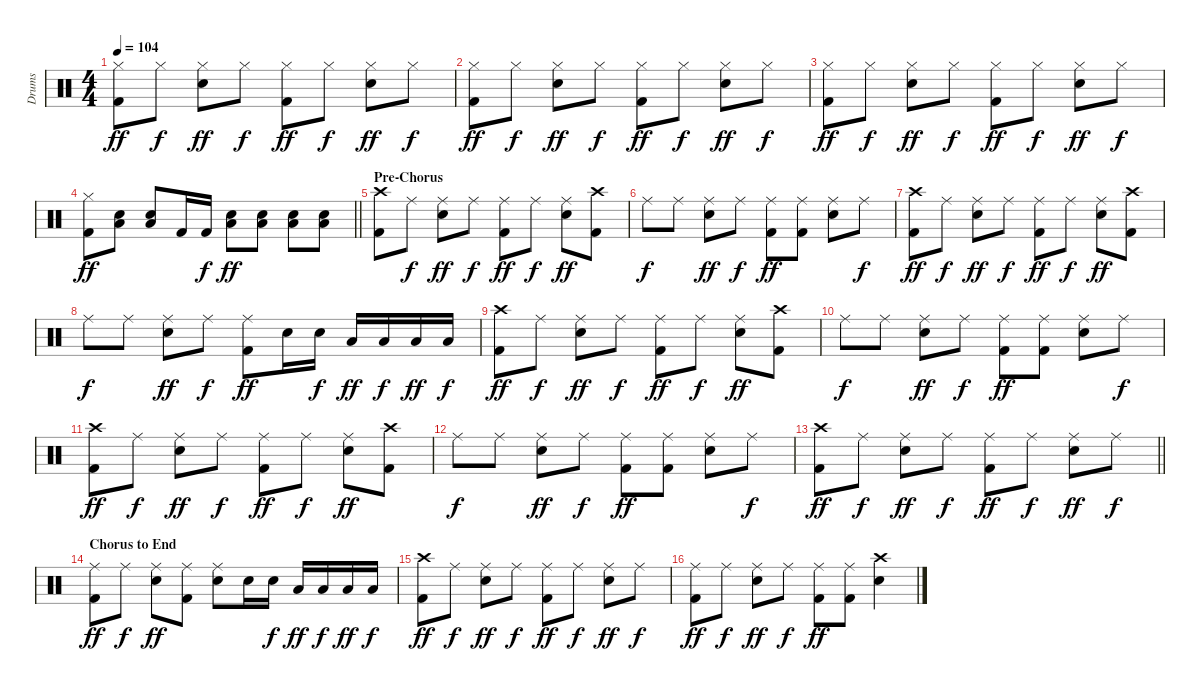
\track ("Drums" "Drums") {instrument percussion}
\staff {score}
\articulation defaults
\ts (4 4)
\tempo 104
\clef neutral
\ks c
("Hi-Hat (closed)" "Kick (hit) 2").8{dy ff} "Hi-Hat (closed)".8{dy f} ("Hi-Hat (closed)" "Snare (hit) 2").8{dy ff} "Hi-Hat (closed)".8{dy f} ("Hi-Hat (closed)" "Kick (hit) 2").8{dy ff} "Hi-Hat (closed)".8{dy f} ("Hi-Hat (closed)" "Snare (hit) 2").8{dy ff} "Hi-Hat (closed)".8{dy f} |
("Hi-Hat (closed)" "Kick (hit) 2").8{dy ff} "Hi-Hat (closed)".8{dy f} ("Hi-Hat (closed)" "Snare (hit) 2").8{dy ff} "Hi-Hat (closed)".8{dy f} ("Hi-Hat (closed)" "Kick (hit) 2").8{dy ff} "Hi-Hat (closed)".8{dy f} ("Hi-Hat (closed)" "Snare (hit) 2").8{dy ff} "Hi-Hat (closed)".8{dy f} |
("Hi-Hat (closed)" "Kick (hit) 2").8{dy ff} "Hi-Hat (closed)".8{dy f} ("Hi-Hat (closed)" "Snare (hit) 2").8{dy ff} "Hi-Hat (closed)".8{dy f} ("Hi-Hat (closed)" "Kick (hit) 2").8{dy ff} "Hi-Hat (closed)".8{dy f} ("Hi-Hat (closed)" "Snare (hit) 2").8{dy ff} "Hi-Hat (closed)".8{dy f} |
\barLineRight lightlight
("Hi-Hat (closed)" "Kick (hit) 2").8{dy ff} ("Low Tom (hit)" "Snare (hit) 2").8 ("Low Tom (hit)" "Snare (hit) 2").8 "Kick (hit) 2".16 "Kick (hit) 2".16{dy f} ("Low Floor Tom (hit)" "Snare (hit) 2").8{dy ff} ("Low Floor Tom (hit)" "Snare (hit) 2").8 ("Low Floor Tom (hit)" "Snare (hit) 2").8 ("Low Floor Tom (hit)" "Snare (hit) 2").8 |
\section ("" "Pre-Chorus")
("Crash high (hit)" "Kick (hit) 2").8 "Ride (middle)".8{dy f} ("Ride (middle)" "Snare (hit) 2").8{dy ff} "Ride (middle)".8{dy f} ("Ride (middle)" "Kick (hit) 2").8{dy ff} "Ride (middle)".8{dy f} ("Ride (middle)" "Snare (hit) 2").8{dy ff} ("Crash high (hit)" "Kick (hit) 2").8 |
"Ride (middle)".8{dy f} "Ride (middle)".8 ("Ride (middle)" "Snare (hit) 2").8{dy ff} "Ride (middle)".8{dy f} ("Ride (middle)" "Kick (hit) 2").8{dy ff} ("Ride (middle)" "Kick (hit) 2").8 ("Ride (middle)" "Snare (hit) 2").8 "Ride (middle)".8{dy f} |
("Crash high (hit)" "Kick (hit) 2").8{dy ff} "Ride (middle)".8{dy f} ("Ride (middle)" "Snare (hit) 2").8{dy ff} "Ride (middle)".8{dy f} ("Ride (middle)" "Kick (hit) 2").8{dy ff} "Ride (middle)".8{dy f} ("Ride (middle)" "Snare (hit) 2").8{dy ff} ("Crash high (hit)" "Kick (hit) 2").8 |
"Ride (middle)".8{dy f} "Ride (middle)".8 ("Ride (middle)" "Snare (hit) 2").8{dy ff} "Ride (middle)".8{dy f} ("Ride (middle)" "Kick (hit) 2").8{dy ff} "Snare (hit) 2".16 "Snare (hit) 2".16{dy f} "Low Tom (hit)".16{dy ff} "Low Tom (hit)".16{dy f} "Low Floor Tom (hit)".16{dy ff} "Low Floor Tom (hit)".16{dy f} |
("Crash high (hit)" "Kick (hit) 2").8{dy ff} "Ride (middle)".8{dy f} ("Ride (middle)" "Snare (hit) 2").8{dy ff} "Ride (middle)".8{dy f} ("Ride (middle)" "Kick (hit) 2").8{dy ff} "Ride (middle)".8{dy f} ("Ride (middle)" "Snare (hit) 2").8{dy ff} ("Crash high (hit)" "Kick (hit) 2").8 |
"Ride (middle)".8{dy f} "Ride (middle)".8 ("Ride (middle)" "Snare (hit) 2").8{dy ff} "Ride (middle)".8{dy f} ("Ride (middle)" "Kick (hit) 2").8{dy ff} ("Ride (middle)" "Kick (hit) 2").8 ("Ride (middle)" "Snare (hit) 2").8 "Ride (middle)".8{dy f} |
("Crash high (hit)" "Kick (hit) 2").8{dy ff} "Ride (middle)".8{dy f} ("Ride (middle)" "Snare (hit) 2").8{dy ff} "Ride (middle)".8{dy f} ("Ride (middle)" "Kick (hit) 2").8{dy ff} "Ride (middle)".8{dy f} ("Ride (middle)" "Snare (hit) 2").8{dy ff} ("Crash high (hit)" "Kick (hit) 2").8 |
"Ride (middle)".8{dy f} "Ride (middle)".8 ("Ride (middle)" "Snare (hit) 2").8{dy ff} "Ride (middle)".8{dy f} ("Ride (middle)" "Kick (hit) 2").8{dy ff} ("Ride (middle)" "Kick (hit) 2").8 ("Ride (middle)" "Snare (hit) 2").8 "Ride (middle)".8{dy f} |
\barLineRight lightlight
("Crash high (hit)" "Kick (hit) 2").8{dy ff} "Ride (middle)".8{dy f} ("Ride (middle)" "Snare (hit) 2").8{dy ff} "Ride (middle)".8{dy f} ("Ride (middle)" "Kick (hit) 2").8{dy ff} "Ride (middle)".8{dy f} ("Ride (middle)" "Snare (hit) 2").8{dy ff} "Ride (middle)".8{dy f} |
\section ("" "Chorus to End")
("Ride (middle)" "Kick (hit) 2").8{dy ff} "Ride (middle)".8{dy f} ("Ride (middle)" "Snare (hit) 2").8{dy ff} ("Ride (middle)" "Kick (hit) 2").8 ("Ride (middle)" "Snare (hit) 2").8 "Snare (hit) 2".16 "Snare (hit) 2".16{dy f} "Low Tom (hit)".16{dy ff} "Low Tom (hit)".16{dy f} "Low Floor Tom (hit)".16{dy ff} "Low Floor Tom (hit)".16{dy f} |
("Crash high (hit)" "Kick (hit) 2").8{dy ff} "Ride (middle)".8{dy f} ("Ride (middle)" "Snare (hit) 2").8{dy ff} "Ride (middle)".8{dy f} ("Ride (middle)" "Kick (hit) 2").8{dy ff} "Ride (middle)".8{dy f} ("Ride (middle)" "Snare (hit) 2").8{dy ff} "Ride (middle)".8{dy f} |
("Ride (middle)" "Kick (hit) 2").8{dy ff} "Ride (middle)".8{dy f} ("Ride (middle)" "Snare (hit) 2").8{dy ff} "Ride (middle)".8{dy f} ("Ride (middle)" "Kick (hit) 2").8{dy ff} ("Ride (middle)" "Kick (hit) 2").8 ("Crash high (hit)" "Snare (hit) 2").4
